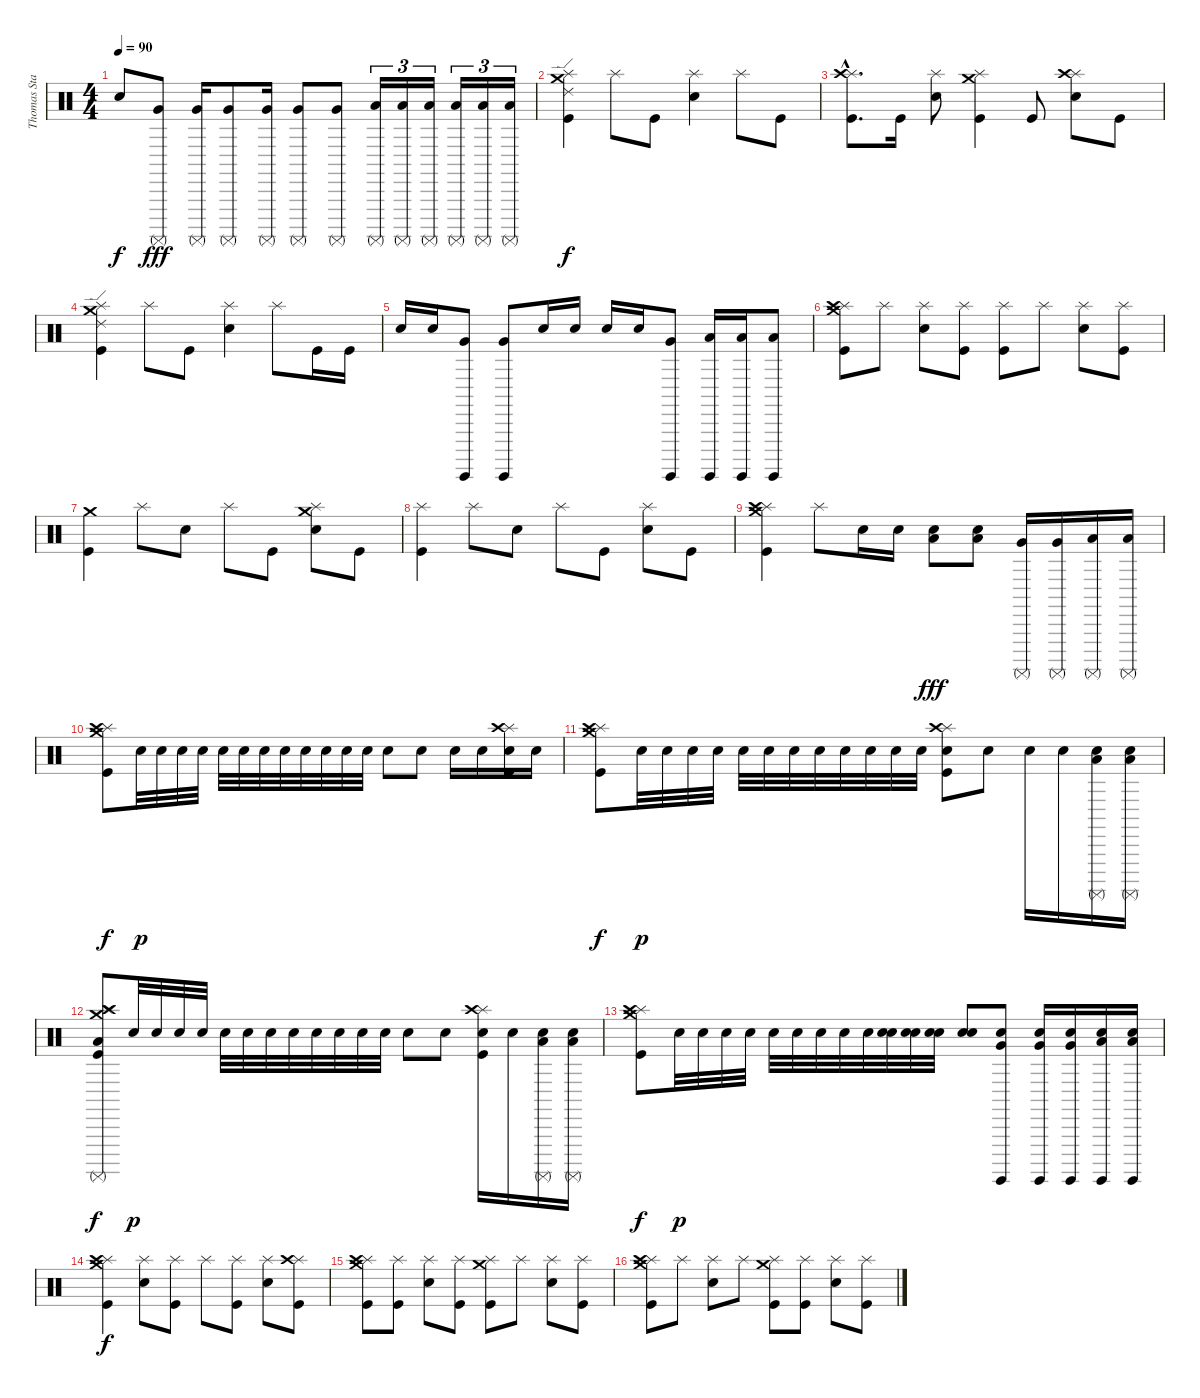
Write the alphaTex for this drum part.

\track ("Thomas Stauch" "Thomas Sta") {instrument percussion}
\staff {score}
\articulation defaults
\ts (4 4)
\tempo 90
\clef neutral
\ks c "Electric Snare (hit)".8{dy f}
("Surdo (mute)" "Very Low Tom (hit)").8{dy fff} ("Surdo (mute)" "Very Low Tom (hit)").16 ("Surdo (mute)" "Very Low Tom (hit)").8 ("Surdo (mute)" "Very Low Tom (hit)").16 ("Surdo (mute)" "Very Low Tom (hit)").8 ("Surdo (mute)" "Very Low Tom (hit)").8 ("Surdo (mute)" "Low Floor Tom (hit)").16{tu (3 2)} ("Surdo (mute)" "Low Floor Tom (hit)").16{tu (3 2)} ("Surdo (mute)" "Low Floor Tom (hit)").16{tu (3 2)} ("Surdo (mute)" "Low Floor Tom (hit)").16{tu (3 2)} ("Surdo (mute)" "Low Floor Tom (hit)").16{tu (3 2)} ("Surdo (mute)" "Low Floor Tom (hit)").16{tu (3 2)} |
("Crash medium (hit)" "Splash (hit)" "Ride (edge) 2" "Kick (hit)").4{dy f} "Splash (hit)".8 "Kick (hit)".8 ("Splash (hit)" "Electric Snare (hit)").4 "Splash (hit)".8 "Kick (hit)".8 |
("Splash (hit)"{hac} "Crash high (hit)"{hac} "Kick (hit)"{hac}).8{d} "Kick (hit)".16 ("Splash (hit)" "Electric Snare (hit)").8 ("Crash medium (hit)" "Splash (hit)" "Kick (hit)").4 "Kick (hit)".8 ("Splash (hit)" "Crash high (hit)" "Electric Snare (hit)").8 "Kick (hit)".8 |
("Crash medium (hit)" "Splash (hit)" "Ride (edge) 2" "Kick (hit)").4 "Splash (hit)".8 "Kick (hit)".8 ("Splash (hit)" "Electric Snare (hit)").4 "Splash (hit)".8 "Kick (hit)".16 "Kick (hit)".16 |
"Electric Snare (hit)".16 "Electric Snare (hit)".16 ("Surdo (hit)" "Very Low Tom (hit)").8 ("Surdo (hit)" "Very Low Tom (hit)").8 "Electric Snare (hit)".16 "Electric Snare (hit)".16 "Electric Snare (hit)".16 "Electric Snare (hit)".16 ("Surdo (hit)" "Very Low Tom (hit)").8 ("Surdo (hit)" "Low Floor Tom (hit)").16 ("Surdo (hit)" "Low Floor Tom (hit)").16 ("Surdo (hit)" "Low Floor Tom (hit)").8 |
("Crash medium (hit)" "Splash (hit)" "Crash high (hit)" "Kick (hit)").8 "Splash (hit)".8 ("Splash (hit)" "Electric Snare (hit)").8 ("Splash (hit)" "Kick (hit)").8 ("Splash (hit)" "Kick (hit)").8 "Splash (hit)".8 ("Splash (hit)" "Electric Snare (hit)").8 ("Splash (hit)" "Kick (hit)").8 |
("Crash medium (hit)" "Kick (hit)").4 "Splash (hit)".8 "Electric Snare (hit)".8 "Splash (hit)".8 "Kick (hit)".8 ("Crash medium (hit)" "Splash (hit)" "Electric Snare (hit)").8 "Kick (hit)".8 |
("Splash (hit)" "Kick (hit)").4 "Splash (hit)".8 "Electric Snare (hit)".8 "Splash (hit)".8 "Kick (hit)".8 ("Splash (hit)" "Electric Snare (hit)").8 "Kick (hit)".8 |
("Crash medium (hit)" "Splash (hit)" "Crash high (hit)" "Kick (hit)").4 "Splash (hit)".8 "Electric Snare (hit)".16 "Electric Snare (hit)".16 ("Low Tom (hit)" "Electric Snare (hit)").8{dy fff} ("Low Tom (hit)" "Electric Snare (hit)").8 ("Surdo (mute)" "Very Low Tom (hit)").16 ("Surdo (mute)" "Very Low Tom (hit)").16 ("Surdo (mute)" "Low Floor Tom (hit)").16 ("Surdo (mute)" "Low Floor Tom (hit)").16 |
("Crash medium (hit)" "Splash (hit)" "Crash high (hit)" "Kick (hit)").8{dy f} "Electric Snare (hit)".32{dy p} "Electric Snare (hit)".32 "Electric Snare (hit)".32 "Electric Snare (hit)".32 "Electric Snare (hit)".32 "Electric Snare (hit)".32 "Electric Snare (hit)".32 "Electric Snare (hit)".32 "Electric Snare (hit)".32 "Electric Snare (hit)".32 "Electric Snare (hit)".32 "Electric Snare (hit)".32 "Electric Snare (hit)".8 "Electric Snare (hit)".8 "Electric Snare (hit)".16 "Electric Snare (hit)".16 ("Splash (hit)" "Crash high (hit)" "Electric Snare (hit)" "Kick (hit)").16 "Electric Snare (hit)".16 |
("Crash medium (hit)" "Splash (hit)" "Crash high (hit)" "Kick (hit)").8{dy f} "Electric Snare (hit)".32{dy p} "Electric Snare (hit)".32 "Electric Snare (hit)".32 "Electric Snare (hit)".32 "Electric Snare (hit)".32 "Electric Snare (hit)".32 "Electric Snare (hit)".32 "Electric Snare (hit)".32 "Electric Snare (hit)".32 "Electric Snare (hit)".32 "Electric Snare (hit)".32 "Electric Snare (hit)".32 ("Splash (hit)" "Crash high (hit)" "Electric Snare (hit)" "Kick (hit)").8 "Electric Snare (hit)".8 "Electric Snare (hit)".16 "Electric Snare (hit)".16 ("Surdo (mute)" "Electric Snare (hit)" "Low Floor Tom (hit)").16 ("Surdo (mute)" "Electric Snare (hit)" "Low Floor Tom (hit)").16 |
("Crash medium (hit)" "Splash (hit)" "Crash high (hit)" "Surdo (mute)" "Low Floor Tom (hit)" "Kick (hit)").8{dy f} "Electric Snare (hit)".32{dy p} "Electric Snare (hit)".32 "Electric Snare (hit)".32 "Electric Snare (hit)".32 "Electric Snare (hit)".32 "Electric Snare (hit)".32 "Electric Snare (hit)".32 "Electric Snare (hit)".32 "Electric Snare (hit)".32 "Electric Snare (hit)".32 "Electric Snare (hit)".32 "Electric Snare (hit)".32 "Electric Snare (hit)".8 "Electric Snare (hit)".8 ("Splash (hit)" "Crash high (hit)" "Electric Snare (hit)" "Kick (hit)").16 "Electric Snare (hit)".16 ("Low Floor Tom (hit)" "Electric Snare (hit)" "Surdo (mute)").16 ("Surdo (mute)" "Electric Snare (hit)" "Low Floor Tom (hit)").16 |
("Crash medium (hit)" "Splash (hit)" "Crash high (hit)" "Kick (hit)").8{dy f} "Electric Snare (hit)".32{dy p} "Electric Snare (hit)".32 "Electric Snare (hit)".32 "Electric Snare (hit)".32 "Electric Snare (hit)".32 "Electric Snare (hit)".32 "Electric Snare (hit)".32 "Electric Snare (hit)".32 "Electric Snare (hit)".32 ("Electric Snare (hit)" "Electric Snare (hit)").32 ("Electric Snare (hit)" "Electric Snare (hit)").32 ("Electric Snare (hit)" "Electric Snare (hit)").32 ("Electric Snare (hit)" "Electric Snare (hit)").8 ("Surdo (hit)" "Very Low Tom (hit)" "Electric Snare (hit)").8 ("Surdo (hit)" "Very Low Tom (hit)" "Electric Snare (hit)").16 ("Surdo (hit)" "Very Low Tom (hit)" "Electric Snare (hit)").16 ("Surdo (hit)" "Low Floor Tom (hit)" "Electric Snare (hit)").16 ("Surdo (hit)" "Low Floor Tom (hit)" "Electric Snare (hit)").16 |
("Crash medium (hit)" "Splash (hit)" "Crash high (hit)" "Kick (hit)").4{dy f} ("Splash (hit)" "Electric Snare (hit)").8 ("Splash (hit)" "Kick (hit)").8 "Splash (hit)".8 ("Splash (hit)" "Kick (hit)").8 ("Splash (hit)" "Electric Snare (hit)").8 ("Splash (hit)" "Crash high (hit)" "Kick (hit)").8 |
("Crash medium (hit)" "Splash (hit)" "Crash high (hit)" "Kick (hit)").8 ("Splash (hit)" "Kick (hit)").8 ("Splash (hit)" "Electric Snare (hit)").8 ("Splash (hit)" "Kick (hit)").8 ("Crash medium (hit)" "Splash (hit)" "Kick (hit)").8 "Splash (hit)".8 ("Splash (hit)" "Electric Snare (hit)").8 ("Splash (hit)" "Kick (hit)").8 |
("Crash medium (hit)" "Splash (hit)" "Crash high (hit)" "Kick (hit)").8 "Splash (hit)".8 ("Splash (hit)" "Electric Snare (hit)").8 "Splash (hit)".8 ("Crash medium (hit)" "Splash (hit)" "Kick (hit)").8 ("Splash (hit)" "Kick (hit)").8 ("Splash (hit)" "Electric Snare (hit)").8 ("Splash (hit)" "Kick (hit)").8
